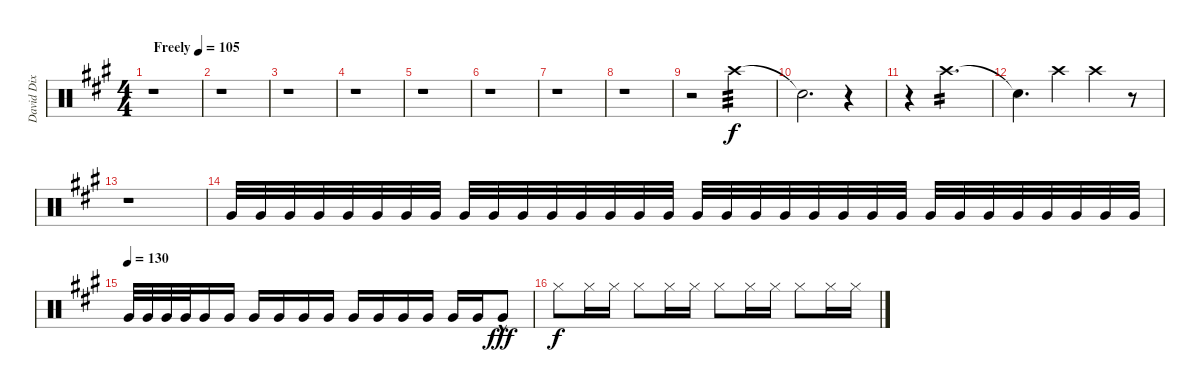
\track ("David Dix Drums" "David Dix ") {instrument percussion}
\staff {score}
\articulation defaults
\ts (4 4)
\tempo (105 "Freely")
\clef neutral
\ks f#minor
r.1{dy f} |
r.1 |
r.1 |
r.1 |
r.1 |
r.1 |
r.1 |
r.1 |
r.2 "Crash high (hit)".2{tp 3 volume 13} |
"Snare (hit)"{t}.2{d} r.4 |
r.4 "Crash high (hit)".2{d tp 2} |
"Snare (hit)"{t}.4{d} "Crash high (hit)".4 "Crash high (hit)".4 r.8 |
r.1{volume 0} |
"Very Low Tom (hit)".32{volume 13} "Very Low Tom (hit)".32 "Very Low Tom (hit)".32 "Very Low Tom (hit)".32 "Very Low Tom (hit)".32 "Very Low Tom (hit)".32 "Very Low Tom (hit)".32 "Very Low Tom (hit)".32 "Very Low Tom (hit)".32 "Very Low Tom (hit)".32 "Very Low Tom (hit)".32 "Very Low Tom (hit)".32 "Very Low Tom (hit)".32 "Very Low Tom (hit)".32 "Very Low Tom (hit)".32 "Very Low Tom (hit)".32 "Very Low Tom (hit)".32 "Very Low Tom (hit)".32 "Very Low Tom (hit)".32 "Very Low Tom (hit)".32 "Very Low Tom (hit)".32 "Very Low Tom (hit)".32 "Very Low Tom (hit)".32 "Very Low Tom (hit)".32 "Very Low Tom (hit)".32 "Very Low Tom (hit)".32 "Very Low Tom (hit)".32 "Very Low Tom (hit)".32 "Very Low Tom (hit)".32 "Very Low Tom (hit)".32 "Very Low Tom (hit)".32 "Very Low Tom (hit)".32 |
\tempo (130)
"Very Low Tom (hit)".32 "Very Low Tom (hit)".32 "Very Low Tom (hit)".32 "Very Low Tom (hit)".32 "Very Low Tom (hit)".16 "Very Low Tom (hit)".16 "Very Low Tom (hit)".16 "Very Low Tom (hit)".16 "Very Low Tom (hit)".16 "Very Low Tom (hit)".16 "Very Low Tom (hit)".16 "Very Low Tom (hit)".16 "Very Low Tom (hit)".16 "Very Low Tom (hit)".16 "Very Low Tom (hit)".16 "Very Low Tom (hit)".16 "Very Low Tom (hit)"{hac}.8{dy fff} |
"Hi-Hat (closed)".8{dy f} "Hi-Hat (closed)".16 "Hi-Hat (closed)".16 "Hi-Hat (closed)".8 "Hi-Hat (closed)".16 "Hi-Hat (closed)".16 "Hi-Hat (closed)".8 "Hi-Hat (closed)".16 "Hi-Hat (closed)".16 "Hi-Hat (closed)".8 "Hi-Hat (closed)".16 "Hi-Hat (closed)".16
